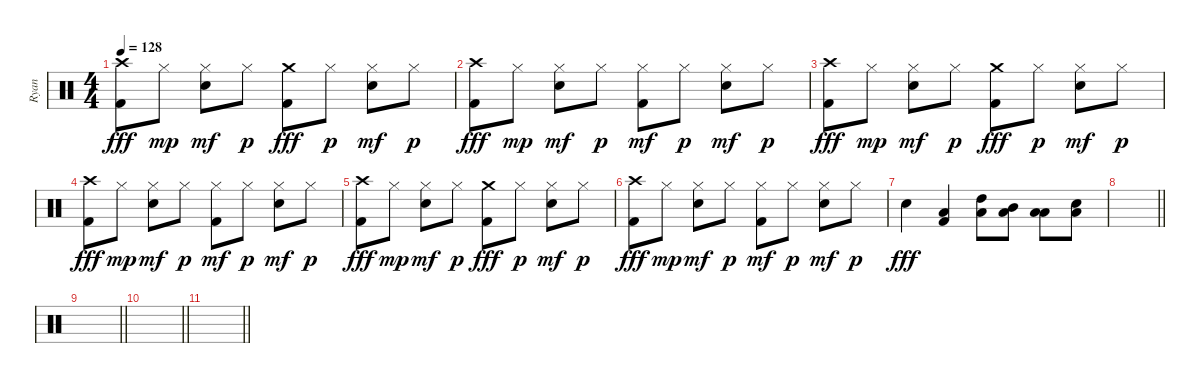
\track ("Ryan" "Ryan") {instrument percussion}
\staff {score}
\articulation defaults
\ts (4 4)
\tempo 128
\clef neutral
\ks c
("Kick (hit) 2" "Crash high (hit)").8{dy fff} "Hi-Hat (closed)".8{dy mp} ("Snare (hit) 2" "Hi-Hat (closed)").8{dy mf} "Hi-Hat (closed)".8{dy p} ("Kick (hit) 2" "Crash medium (hit)").8{dy fff} "Hi-Hat (closed)".8{dy p} ("Snare (hit) 2" "Hi-Hat (closed)").8{dy mf} "Hi-Hat (closed)".8{dy p} |
("Kick (hit) 2" "Crash high (hit)").8{dy fff} "Hi-Hat (closed)".8{dy mp} ("Snare (hit) 2" "Hi-Hat (closed)").8{dy mf} "Hi-Hat (closed)".8{dy p} ("Kick (hit) 2" "Hi-Hat (closed)").8{dy mf} "Hi-Hat (closed)".8{dy p} ("Snare (hit) 2" "Hi-Hat (closed)").8{dy mf} "Hi-Hat (closed)".8{dy p} |
("Kick (hit) 2" "Crash high (hit)").8{dy fff} "Hi-Hat (closed)".8{dy mp} ("Snare (hit) 2" "Hi-Hat (closed)").8{dy mf} "Hi-Hat (closed)".8{dy p} ("Kick (hit) 2" "Crash medium (hit)").8{dy fff} "Hi-Hat (closed)".8{dy p} ("Snare (hit) 2" "Hi-Hat (closed)").8{dy mf} "Hi-Hat (closed)".8{dy p} |
("Kick (hit) 2" "Crash high (hit)").8{dy fff} "Hi-Hat (closed)".8{dy mp} ("Snare (hit) 2" "Hi-Hat (closed)").8{dy mf} "Hi-Hat (closed)".8{dy p} ("Kick (hit) 2" "Hi-Hat (closed)").8{dy mf} "Hi-Hat (closed)".8{dy p} ("Snare (hit) 2" "Hi-Hat (closed)").8{dy mf} "Hi-Hat (closed)".8{dy p} |
("Kick (hit) 2" "Crash high (hit)").8{dy fff} "Hi-Hat (closed)".8{dy mp} ("Snare (hit) 2" "Hi-Hat (closed)").8{dy mf} "Hi-Hat (closed)".8{dy p} ("Kick (hit) 2" "Crash medium (hit)").8{dy fff} "Hi-Hat (closed)".8{dy p} ("Snare (hit) 2" "Hi-Hat (closed)").8{dy mf} "Hi-Hat (closed)".8{dy p} |
("Kick (hit) 2" "Crash high (hit)").8{dy fff} "Hi-Hat (closed)".8{dy mp} ("Snare (hit) 2" "Hi-Hat (closed)").8{dy mf} "Hi-Hat (closed)".8{dy p} ("Kick (hit) 2" "Hi-Hat (closed)").8{dy mf} "Hi-Hat (closed)".8{dy p} ("Snare (hit) 2" "Hi-Hat (closed)").8{dy mf} "Hi-Hat (closed)".8{dy p} |
"Snare (hit) 2".4{dy fff} ("Kick (hit) 2" "Low Floor Tom (hit)").4 ("High Tom (hit)" "Low Floor Tom (hit)").8 ("Mid Tom (hit)" "Low Floor Tom (hit)").8 ("Low Tom (hit)" "Low Floor Tom (hit)").8 ("Snare (hit) 2" "Low Floor Tom (hit)").8 |
\barLineRight lightlight
|
\barLineRight lightlight
|
\barLineRight lightlight
|
\barLineRight lightlight
